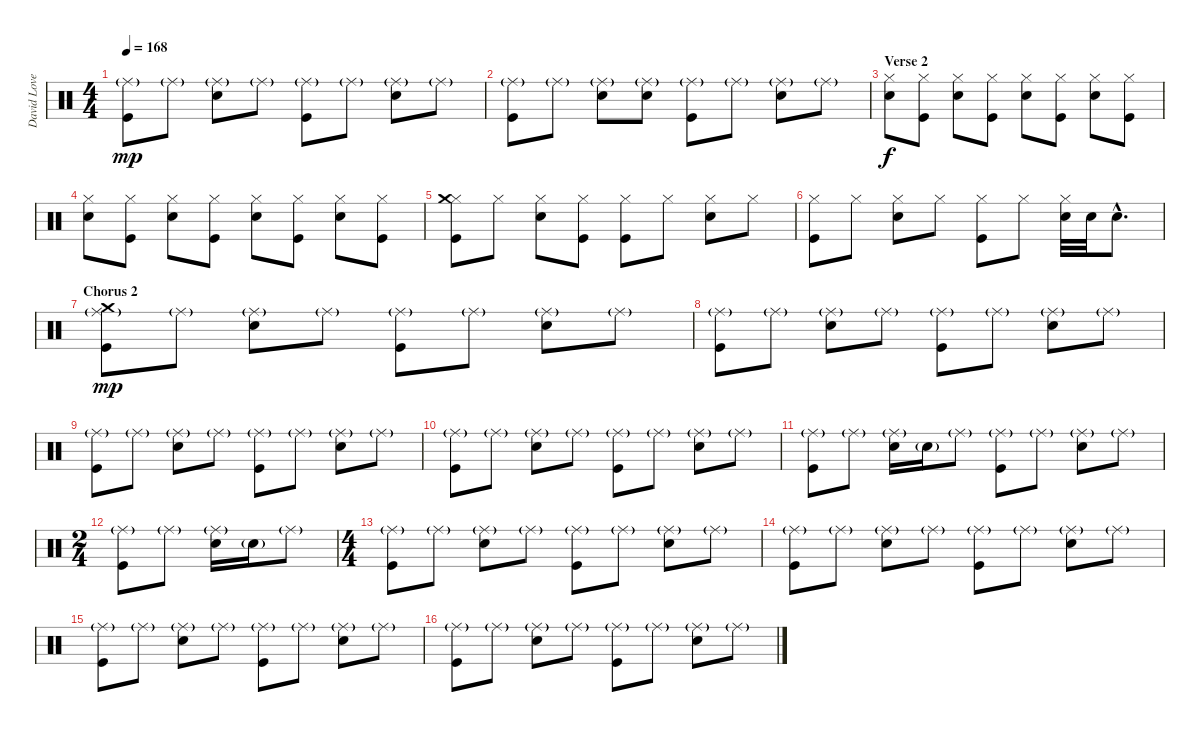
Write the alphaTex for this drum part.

\track ("David Lovering" "David Love") {instrument percussion}
\staff {score}
\articulation defaults
\ts (4 4)
\tempo 168
\clef neutral
\ks c
("Ride (middle)"{g} "Kick (hit)").8{dy mp} "Ride (middle)"{g}.8 ("Ride (middle)"{g} "Snare (hit) 2").8 "Ride (middle)"{g}.8 ("Ride (middle)"{g} "Kick (hit)").8 "Ride (middle)"{g}.8 ("Ride (middle)"{g} "Snare (hit) 2").8 "Ride (middle)"{g}.8 |
("Ride (middle)"{g} "Kick (hit)").8 "Ride (middle)"{g}.8 ("Ride (middle)"{g} "Snare (hit) 2").8 ("Ride (middle)"{g} "Snare (hit) 2").8 ("Ride (middle)"{g} "Kick (hit)").8 "Ride (middle)"{g}.8 ("Ride (middle)"{g} "Snare (hit) 2").8 "Ride (middle)"{g}.8 |
\section ("" "Verse 2")
("Hi-Hat (closed)" "Snare (hit) 2").8{dy f} ("Hi-Hat (closed)" "Kick (hit)").8 ("Hi-Hat (closed)" "Snare (hit) 2").8 ("Hi-Hat (closed)" "Kick (hit)").8 ("Hi-Hat (closed)" "Snare (hit) 2").8 ("Hi-Hat (closed)" "Kick (hit)").8 ("Hi-Hat (closed)" "Snare (hit) 2").8 ("Hi-Hat (closed)" "Kick (hit)").8 |
("Hi-Hat (closed)" "Snare (hit) 2").8 ("Hi-Hat (closed)" "Kick (hit)").8 ("Hi-Hat (closed)" "Snare (hit) 2").8 ("Hi-Hat (closed)" "Kick (hit)").8 ("Hi-Hat (closed)" "Snare (hit) 2").8 ("Hi-Hat (closed)" "Kick (hit)").8 ("Hi-Hat (closed)" "Snare (hit) 2").8 ("Hi-Hat (closed)" "Kick (hit)").8 |
("Hi-Hat (closed)" "Crash medium (hit)" "Kick (hit)").8 "Hi-Hat (closed)".8 ("Hi-Hat (closed)" "Snare (hit) 2").8 ("Hi-Hat (closed)" "Kick (hit)").8 ("Hi-Hat (closed)" "Kick (hit)").8 "Hi-Hat (closed)".8 ("Hi-Hat (closed)" "Snare (hit) 2").8 "Hi-Hat (closed)".8 |
("Hi-Hat (closed)" "Kick (hit)").8 "Hi-Hat (closed)".8 ("Hi-Hat (closed)" "Snare (hit) 2").8 "Hi-Hat (closed)".8 ("Hi-Hat (closed)" "Kick (hit)").8 "Hi-Hat (closed)".8 ("Hi-Hat (closed)" "Snare (hit) 2").32 "Snare (hit) 2".32 "Snare (hit) 2"{hac}.8{d} |
\section ("" "Chorus 2")
("Ride (middle)"{g} "Crash medium (hit)" "Kick (hit)").8{dy mp} "Ride (middle)"{g}.8 ("Ride (middle)"{g} "Snare (hit) 2").8 "Ride (middle)"{g}.8 ("Ride (middle)"{g} "Kick (hit)").8 "Ride (middle)"{g}.8 ("Ride (middle)"{g} "Snare (hit) 2").8 "Ride (middle)"{g}.8 |
("Ride (middle)"{g} "Kick (hit)").8 "Ride (middle)"{g}.8 ("Ride (middle)"{g} "Snare (hit) 2").8 "Ride (middle)"{g}.8 ("Ride (middle)"{g} "Kick (hit)").8 "Ride (middle)"{g}.8 ("Ride (middle)"{g} "Snare (hit) 2").8 "Ride (middle)"{g}.8 |
("Ride (middle)"{g} "Kick (hit)").8 "Ride (middle)"{g}.8 ("Ride (middle)"{g} "Snare (hit) 2").8 "Ride (middle)"{g}.8 ("Ride (middle)"{g} "Kick (hit)").8 "Ride (middle)"{g}.8 ("Ride (middle)"{g} "Snare (hit) 2").8 "Ride (middle)"{g}.8 |
("Ride (middle)"{g} "Kick (hit)").8 "Ride (middle)"{g}.8 ("Ride (middle)"{g} "Snare (hit) 2").8 "Ride (middle)"{g}.8 ("Ride (middle)"{g} "Kick (hit)").8 "Ride (middle)"{g}.8 ("Ride (middle)"{g} "Snare (hit) 2").8 "Ride (middle)"{g}.8 |
("Ride (middle)"{g} "Kick (hit)").8 "Ride (middle)"{g}.8 ("Ride (middle)"{g} "Snare (hit) 2").16 "Snare (hit) 2"{g}.16 "Ride (middle)"{g}.8 ("Ride (middle)"{g} "Kick (hit)").8 "Ride (middle)"{g}.8 ("Ride (middle)"{g} "Snare (hit) 2").8 "Ride (middle)"{g}.8 |
\ts (2 4)
("Ride (middle)"{g} "Kick (hit)").8 "Ride (middle)"{g}.8 ("Ride (middle)"{g} "Snare (hit) 2").16 "Snare (hit) 2"{g}.16 "Ride (middle)"{g}.8 |
\ts (4 4)
("Ride (middle)"{g} "Kick (hit)").8 "Ride (middle)"{g}.8 ("Ride (middle)"{g} "Snare (hit) 2").8 "Ride (middle)"{g}.8 ("Ride (middle)"{g} "Kick (hit)").8 "Ride (middle)"{g}.8 ("Ride (middle)"{g} "Snare (hit) 2").8 "Ride (middle)"{g}.8 |
("Ride (middle)"{g} "Kick (hit)").8 "Ride (middle)"{g}.8 ("Ride (middle)"{g} "Snare (hit) 2").8 "Ride (middle)"{g}.8 ("Ride (middle)"{g} "Kick (hit)").8 "Ride (middle)"{g}.8 ("Ride (middle)"{g} "Snare (hit) 2").8 "Ride (middle)"{g}.8 |
("Ride (middle)"{g} "Kick (hit)").8 "Ride (middle)"{g}.8 ("Ride (middle)"{g} "Snare (hit) 2").8 "Ride (middle)"{g}.8 ("Ride (middle)"{g} "Kick (hit)").8 "Ride (middle)"{g}.8 ("Ride (middle)"{g} "Snare (hit) 2").8 "Ride (middle)"{g}.8 |
("Ride (middle)"{g} "Kick (hit)").8 "Ride (middle)"{g}.8 ("Ride (middle)"{g} "Snare (hit) 2").8 "Ride (middle)"{g}.8 ("Ride (middle)"{g} "Kick (hit)").8 "Ride (middle)"{g}.8 ("Ride (middle)"{g} "Snare (hit) 2").8 "Ride (middle)"{g}.8
